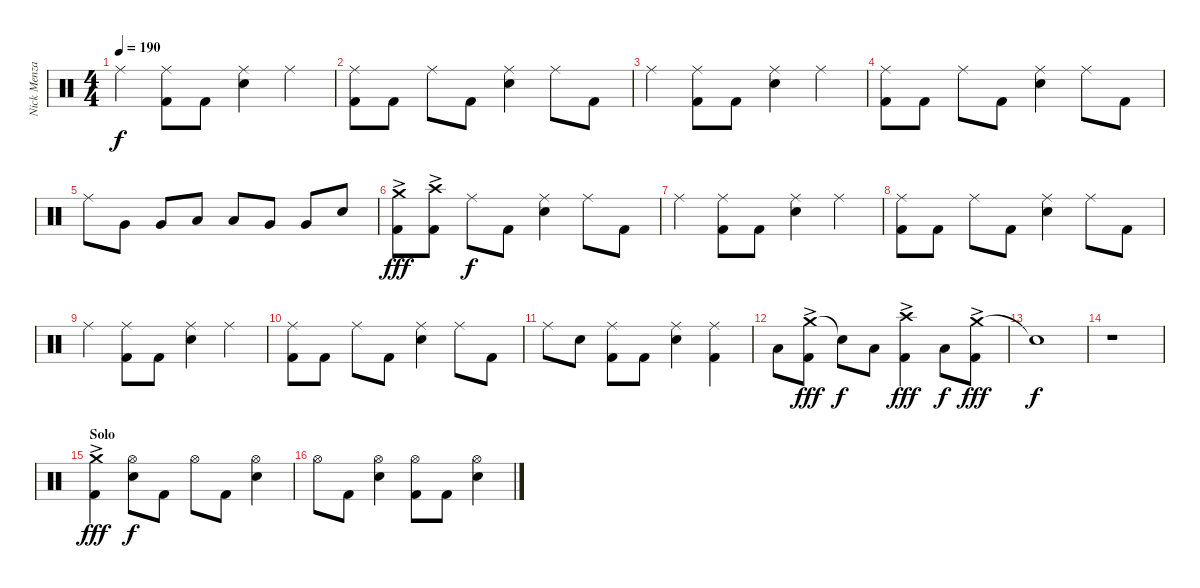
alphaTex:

\track ("Nick Menza" "Nick Menza") {instrument percussion}
\staff {score}
\articulation defaults
\ts (4 4)
\tempo 190
\clef neutral
\ks c "Ride (middle)".4{dy f}
("Ride (middle)" "Kick (hit) 2").8 "Kick (hit) 2".8 ("Ride (middle)" "Snare (hit) 2").4 "Ride (middle)".4 |
("Ride (middle)" "Kick (hit) 2").8 "Kick (hit) 2".8 "Ride (middle)".8 "Kick (hit) 2".8 ("Ride (middle)" "Snare (hit) 2").4 "Ride (middle)".8 "Kick (hit) 2".8 |
"Ride (middle)".4 ("Ride (middle)" "Kick (hit) 2").8 "Kick (hit) 2".8 ("Ride (middle)" "Snare (hit) 2").4 "Ride (middle)".4 |
("Ride (middle)" "Kick (hit) 2").8 "Kick (hit) 2".8 "Ride (middle)".8 "Kick (hit) 2".8 ("Ride (middle)" "Snare (hit) 2").4 "Ride (middle)".8 "Kick (hit) 2".8 |
"Ride (middle)".8 "Very Low Tom (hit)".8 "Very Low Tom (hit)".8 "Low Tom (hit)".8 "Low Tom (hit)".8 "Very Low Tom (hit)".8 "Very Low Tom (hit)".8 "Snare (hit) 2".8 |
("Crash medium (hit)"{ac} "Kick (hit) 2").8{dy fff} ("Crash high (hit)"{ac} "Kick (hit) 2").8 "Ride (middle)".8{dy f} "Kick (hit) 2".8 ("Ride (middle)" "Snare (hit) 2").4 "Ride (middle)".8 "Kick (hit) 2".8 |
"Ride (middle)".4 ("Ride (middle)" "Kick (hit) 2").8 "Kick (hit) 2".8 ("Ride (middle)" "Snare (hit) 2").4 "Ride (middle)".4 |
("Ride (middle)" "Kick (hit) 2").8 "Kick (hit) 2".8 "Ride (middle)".8 "Kick (hit) 2".8 ("Ride (middle)" "Snare (hit) 2").4 "Ride (middle)".8 "Kick (hit) 2".8 |
"Ride (middle)".4 ("Ride (middle)" "Kick (hit) 2").8 "Kick (hit) 2".8 ("Ride (middle)" "Snare (hit) 2").4 "Ride (middle)".4 |
("Ride (middle)" "Kick (hit) 2").8 "Kick (hit) 2".8 "Ride (middle)".8 "Kick (hit) 2".8 ("Ride (middle)" "Snare (hit) 2").4 "Ride (middle)".8 "Kick (hit) 2".8 |
"Ride (middle)".8 "Snare (hit) 2".8 ("Ride (middle)" "Kick (hit) 2").8 "Kick (hit) 2".8 ("Ride (middle)" "Snare (hit) 2").4 ("Ride (middle)" "Kick (hit) 2").4 |
"Low Tom (hit)".8 ("Crash medium (hit)"{ac} "Kick (hit) 2").8{dy fff} "Snare (hit)"{t}.8{dy f} "Low Tom (hit)".8 ("Crash high (hit)"{ac} "Kick (hit) 2").4{dy fff} "Low Tom (hit)".8{dy f} ("Crash medium (hit)"{ac} "Kick (hit) 2").8{dy fff} |
"Snare (hit)"{t}.1{dy f} |
r.1 |
\section ("" "Solo")
("Crash medium (hit)"{ac} "Kick (hit) 2").4{dy fff} ("Hi-Hat (open)" "Snare (hit) 2").8{dy f} "Kick (hit) 2".8 "Hi-Hat (open)".8 "Kick (hit) 2".8 ("Hi-Hat (open)" "Snare (hit) 2").4 |
"Hi-Hat (open)".8 "Kick (hit) 2".8 ("Hi-Hat (open)" "Snare (hit) 2").4 ("Hi-Hat (open)" "Kick (hit) 2").8 "Kick (hit) 2".8 ("Hi-Hat (open)" "Snare (hit) 2").4
